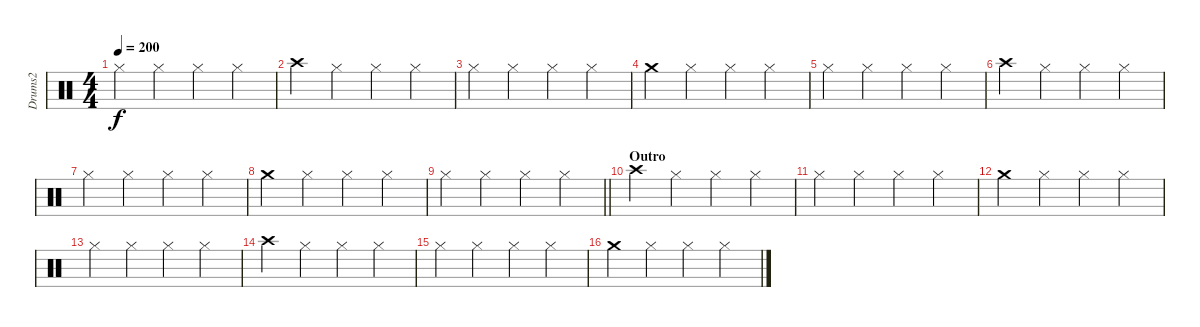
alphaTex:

\track ("Drums2" "Drums2") {instrument percussion}
\staff {score}
\articulation defaults
\ts (4 4)
\tempo 200
\clef neutral
\ks c "Hi-Hat (closed)".4{dy f} "Hi-Hat (closed)".4 "Hi-Hat (closed)".4 "Hi-Hat (closed)".4
|
"Crash high (hit)".4 "Hi-Hat (closed)".4 "Hi-Hat (closed)".4 "Hi-Hat (closed)".4 |
"Hi-Hat (closed)".4 "Hi-Hat (closed)".4 "Hi-Hat (closed)".4 "Hi-Hat (closed)".4 |
"Crash medium (hit)".4 "Hi-Hat (closed)".4 "Hi-Hat (closed)".4 "Hi-Hat (closed)".4 |
"Hi-Hat (closed)".4 "Hi-Hat (closed)".4 "Hi-Hat (closed)".4 "Hi-Hat (closed)".4 |
"Crash high (hit)".4 "Hi-Hat (closed)".4 "Hi-Hat (closed)".4 "Hi-Hat (closed)".4 |
"Hi-Hat (closed)".4 "Hi-Hat (closed)".4 "Hi-Hat (closed)".4 "Hi-Hat (closed)".4 |
"Crash medium (hit)".4 "Hi-Hat (closed)".4 "Hi-Hat (closed)".4 "Hi-Hat (closed)".4 |
\barLineRight lightlight "Hi-Hat (closed)".4 "Hi-Hat (closed)".4 "Hi-Hat (closed)".4 "Hi-Hat (closed)".4
|
\section ("" "Outro")
"Crash high (hit)".4 "Hi-Hat (closed)".4 "Hi-Hat (closed)".4 "Hi-Hat (closed)".4 |
"Hi-Hat (closed)".4 "Hi-Hat (closed)".4 "Hi-Hat (closed)".4 "Hi-Hat (closed)".4 |
"Crash medium (hit)".4 "Hi-Hat (closed)".4 "Hi-Hat (closed)".4 "Hi-Hat (closed)".4 |
"Hi-Hat (closed)".4 "Hi-Hat (closed)".4 "Hi-Hat (closed)".4 "Hi-Hat (closed)".4 |
"Crash high (hit)".4 "Hi-Hat (closed)".4 "Hi-Hat (closed)".4 "Hi-Hat (closed)".4 |
"Hi-Hat (closed)".4 "Hi-Hat (closed)".4 "Hi-Hat (closed)".4 "Hi-Hat (closed)".4 |
"Crash medium (hit)".4 "Hi-Hat (closed)".4 "Hi-Hat (closed)".4 "Hi-Hat (closed)".4
